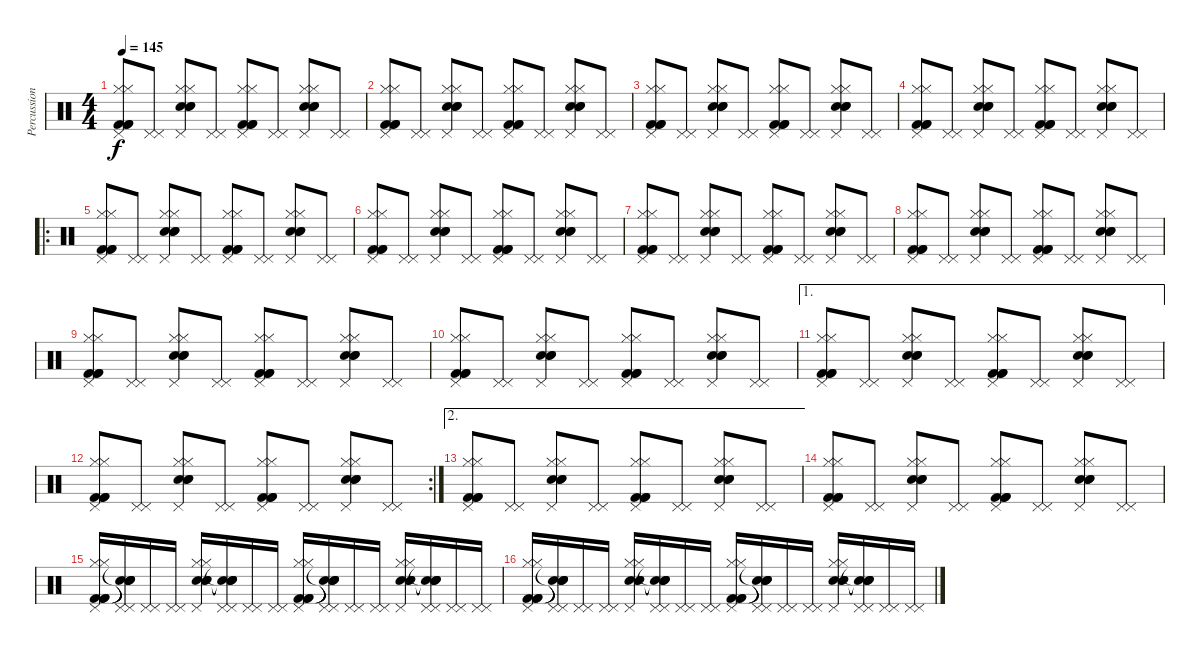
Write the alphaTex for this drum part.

\track ("Percussion" "Percussion") {instrument percussion}
\staff {score}
\articulation defaults
\ts (4 4)
\tempo 145
\clef neutral
\ks c
("Pedal Hi-Hat (hit)" "Hi-Hat (closed)" "Hi-Hat (closed)" "Kick (hit) 2" "Kick (hit) 2" "Kick (hit) 2").8{dy f} ("Pedal Hi-Hat (hit)" "Pedal Hi-Hat (hit)").8 ("Pedal Hi-Hat (hit)" "Hi-Hat (closed)" "Hi-Hat (closed)" "Snare (hit) 2" "Snare (hit) 2" "Snare (hit) 2").8 ("Pedal Hi-Hat (hit)" "Pedal Hi-Hat (hit)").8 ("Pedal Hi-Hat (hit)" "Hi-Hat (closed)" "Hi-Hat (closed)" "Kick (hit) 2" "Kick (hit) 2" "Kick (hit) 2").8 ("Pedal Hi-Hat (hit)" "Pedal Hi-Hat (hit)").8 ("Pedal Hi-Hat (hit)" "Hi-Hat (closed)" "Hi-Hat (closed)" "Snare (hit) 2" "Snare (hit) 2" "Snare (hit) 2").8 ("Pedal Hi-Hat (hit)" "Pedal Hi-Hat (hit)").8 |
("Pedal Hi-Hat (hit)" "Hi-Hat (closed)" "Hi-Hat (closed)" "Kick (hit) 2" "Kick (hit) 2" "Kick (hit) 2").8 ("Pedal Hi-Hat (hit)" "Pedal Hi-Hat (hit)").8 ("Pedal Hi-Hat (hit)" "Hi-Hat (closed)" "Hi-Hat (closed)" "Snare (hit) 2" "Snare (hit) 2" "Snare (hit) 2").8 ("Pedal Hi-Hat (hit)" "Pedal Hi-Hat (hit)").8 ("Pedal Hi-Hat (hit)" "Hi-Hat (closed)" "Hi-Hat (closed)" "Kick (hit) 2" "Kick (hit) 2" "Kick (hit) 2").8 ("Pedal Hi-Hat (hit)" "Pedal Hi-Hat (hit)").8 ("Pedal Hi-Hat (hit)" "Hi-Hat (closed)" "Hi-Hat (closed)" "Snare (hit) 2" "Snare (hit) 2" "Snare (hit) 2").8 ("Pedal Hi-Hat (hit)" "Pedal Hi-Hat (hit)").8 |
("Pedal Hi-Hat (hit)" "Hi-Hat (closed)" "Hi-Hat (closed)" "Kick (hit) 2" "Kick (hit) 2" "Kick (hit) 2").8 ("Pedal Hi-Hat (hit)" "Pedal Hi-Hat (hit)").8 ("Pedal Hi-Hat (hit)" "Hi-Hat (closed)" "Hi-Hat (closed)" "Snare (hit) 2" "Snare (hit) 2" "Snare (hit) 2").8 ("Pedal Hi-Hat (hit)" "Pedal Hi-Hat (hit)").8 ("Pedal Hi-Hat (hit)" "Hi-Hat (closed)" "Hi-Hat (closed)" "Kick (hit) 2" "Kick (hit) 2" "Kick (hit) 2").8 ("Pedal Hi-Hat (hit)" "Pedal Hi-Hat (hit)").8 ("Pedal Hi-Hat (hit)" "Hi-Hat (closed)" "Hi-Hat (closed)" "Snare (hit) 2" "Snare (hit) 2" "Snare (hit) 2").8 ("Pedal Hi-Hat (hit)" "Pedal Hi-Hat (hit)").8 |
("Pedal Hi-Hat (hit)" "Hi-Hat (closed)" "Hi-Hat (closed)" "Kick (hit) 2" "Kick (hit) 2" "Kick (hit) 2").8 ("Pedal Hi-Hat (hit)" "Pedal Hi-Hat (hit)").8 ("Pedal Hi-Hat (hit)" "Hi-Hat (closed)" "Hi-Hat (closed)" "Snare (hit) 2" "Snare (hit) 2" "Snare (hit) 2").8 ("Pedal Hi-Hat (hit)" "Pedal Hi-Hat (hit)").8 ("Pedal Hi-Hat (hit)" "Hi-Hat (closed)" "Hi-Hat (closed)" "Kick (hit) 2" "Kick (hit) 2" "Kick (hit) 2").8 ("Pedal Hi-Hat (hit)" "Pedal Hi-Hat (hit)").8 ("Pedal Hi-Hat (hit)" "Hi-Hat (closed)" "Hi-Hat (closed)" "Snare (hit) 2" "Snare (hit) 2" "Snare (hit) 2").8 ("Pedal Hi-Hat (hit)" "Pedal Hi-Hat (hit)").8 |
\ro
("Pedal Hi-Hat (hit)" "Hi-Hat (closed)" "Hi-Hat (closed)" "Kick (hit) 2" "Kick (hit) 2" "Kick (hit) 2").8 ("Pedal Hi-Hat (hit)" "Pedal Hi-Hat (hit)").8 ("Pedal Hi-Hat (hit)" "Hi-Hat (closed)" "Hi-Hat (closed)" "Snare (hit) 2" "Snare (hit) 2" "Snare (hit) 2").8 ("Pedal Hi-Hat (hit)" "Pedal Hi-Hat (hit)").8 ("Pedal Hi-Hat (hit)" "Hi-Hat (closed)" "Hi-Hat (closed)" "Kick (hit) 2" "Kick (hit) 2" "Kick (hit) 2").8 ("Pedal Hi-Hat (hit)" "Pedal Hi-Hat (hit)").8 ("Pedal Hi-Hat (hit)" "Hi-Hat (closed)" "Hi-Hat (closed)" "Snare (hit) 2" "Snare (hit) 2" "Snare (hit) 2").8 ("Pedal Hi-Hat (hit)" "Pedal Hi-Hat (hit)").8 |
("Pedal Hi-Hat (hit)" "Hi-Hat (closed)" "Hi-Hat (closed)" "Kick (hit) 2" "Kick (hit) 2" "Kick (hit) 2").8 ("Pedal Hi-Hat (hit)" "Pedal Hi-Hat (hit)").8 ("Pedal Hi-Hat (hit)" "Hi-Hat (closed)" "Hi-Hat (closed)" "Snare (hit) 2" "Snare (hit) 2" "Snare (hit) 2").8 ("Pedal Hi-Hat (hit)" "Pedal Hi-Hat (hit)").8 ("Pedal Hi-Hat (hit)" "Hi-Hat (closed)" "Hi-Hat (closed)" "Kick (hit) 2" "Kick (hit) 2" "Kick (hit) 2").8 ("Pedal Hi-Hat (hit)" "Pedal Hi-Hat (hit)").8 ("Pedal Hi-Hat (hit)" "Hi-Hat (closed)" "Hi-Hat (closed)" "Snare (hit) 2" "Snare (hit) 2" "Snare (hit) 2").8 ("Pedal Hi-Hat (hit)" "Pedal Hi-Hat (hit)").8 |
("Pedal Hi-Hat (hit)" "Hi-Hat (closed)" "Hi-Hat (closed)" "Kick (hit) 2" "Kick (hit) 2" "Kick (hit) 2").8 ("Pedal Hi-Hat (hit)" "Pedal Hi-Hat (hit)").8 ("Pedal Hi-Hat (hit)" "Hi-Hat (closed)" "Hi-Hat (closed)" "Snare (hit) 2" "Snare (hit) 2" "Snare (hit) 2").8 ("Pedal Hi-Hat (hit)" "Pedal Hi-Hat (hit)").8 ("Pedal Hi-Hat (hit)" "Hi-Hat (closed)" "Hi-Hat (closed)" "Kick (hit) 2" "Kick (hit) 2" "Kick (hit) 2").8 ("Pedal Hi-Hat (hit)" "Pedal Hi-Hat (hit)").8 ("Pedal Hi-Hat (hit)" "Hi-Hat (closed)" "Hi-Hat (closed)" "Snare (hit) 2" "Snare (hit) 2" "Snare (hit) 2").8 ("Pedal Hi-Hat (hit)" "Pedal Hi-Hat (hit)").8 |
("Pedal Hi-Hat (hit)" "Hi-Hat (closed)" "Hi-Hat (closed)" "Kick (hit) 2" "Kick (hit) 2" "Kick (hit) 2").8 ("Pedal Hi-Hat (hit)" "Pedal Hi-Hat (hit)").8 ("Pedal Hi-Hat (hit)" "Hi-Hat (closed)" "Hi-Hat (closed)" "Snare (hit) 2" "Snare (hit) 2" "Snare (hit) 2").8 ("Pedal Hi-Hat (hit)" "Pedal Hi-Hat (hit)").8 ("Pedal Hi-Hat (hit)" "Hi-Hat (closed)" "Hi-Hat (closed)" "Kick (hit) 2" "Kick (hit) 2" "Kick (hit) 2").8 ("Pedal Hi-Hat (hit)" "Pedal Hi-Hat (hit)").8 ("Pedal Hi-Hat (hit)" "Hi-Hat (closed)" "Hi-Hat (closed)" "Snare (hit) 2" "Snare (hit) 2" "Snare (hit) 2").8 ("Pedal Hi-Hat (hit)" "Pedal Hi-Hat (hit)").8 |
("Pedal Hi-Hat (hit)" "Hi-Hat (closed)" "Hi-Hat (closed)" "Kick (hit) 2" "Kick (hit) 2" "Kick (hit) 2").8 ("Pedal Hi-Hat (hit)" "Pedal Hi-Hat (hit)").8 ("Pedal Hi-Hat (hit)" "Hi-Hat (closed)" "Hi-Hat (closed)" "Snare (hit) 2" "Snare (hit) 2" "Snare (hit) 2").8 ("Pedal Hi-Hat (hit)" "Pedal Hi-Hat (hit)").8 ("Pedal Hi-Hat (hit)" "Hi-Hat (closed)" "Hi-Hat (closed)" "Kick (hit) 2" "Kick (hit) 2" "Kick (hit) 2").8 ("Pedal Hi-Hat (hit)" "Pedal Hi-Hat (hit)").8 ("Pedal Hi-Hat (hit)" "Hi-Hat (closed)" "Hi-Hat (closed)" "Snare (hit) 2" "Snare (hit) 2" "Snare (hit) 2").8 ("Pedal Hi-Hat (hit)" "Pedal Hi-Hat (hit)").8 |
("Pedal Hi-Hat (hit)" "Hi-Hat (closed)" "Hi-Hat (closed)" "Kick (hit) 2" "Kick (hit) 2" "Kick (hit) 2").8 ("Pedal Hi-Hat (hit)" "Pedal Hi-Hat (hit)").8 ("Pedal Hi-Hat (hit)" "Hi-Hat (closed)" "Hi-Hat (closed)" "Snare (hit) 2" "Snare (hit) 2" "Snare (hit) 2").8 ("Pedal Hi-Hat (hit)" "Pedal Hi-Hat (hit)").8 ("Pedal Hi-Hat (hit)" "Hi-Hat (closed)" "Hi-Hat (closed)" "Kick (hit) 2" "Kick (hit) 2" "Kick (hit) 2").8 ("Pedal Hi-Hat (hit)" "Pedal Hi-Hat (hit)").8 ("Pedal Hi-Hat (hit)" "Hi-Hat (closed)" "Hi-Hat (closed)" "Snare (hit) 2" "Snare (hit) 2" "Snare (hit) 2").8 ("Pedal Hi-Hat (hit)" "Pedal Hi-Hat (hit)").8 |
\ae 1
("Pedal Hi-Hat (hit)" "Hi-Hat (closed)" "Hi-Hat (closed)" "Kick (hit) 2" "Kick (hit) 2" "Kick (hit) 2").8 ("Pedal Hi-Hat (hit)" "Pedal Hi-Hat (hit)").8 ("Pedal Hi-Hat (hit)" "Hi-Hat (closed)" "Hi-Hat (closed)" "Snare (hit) 2" "Snare (hit) 2" "Snare (hit) 2").8 ("Pedal Hi-Hat (hit)" "Pedal Hi-Hat (hit)").8 ("Pedal Hi-Hat (hit)" "Hi-Hat (closed)" "Hi-Hat (closed)" "Kick (hit) 2" "Kick (hit) 2" "Kick (hit) 2").8 ("Pedal Hi-Hat (hit)" "Pedal Hi-Hat (hit)").8 ("Pedal Hi-Hat (hit)" "Hi-Hat (closed)" "Hi-Hat (closed)" "Snare (hit) 2" "Snare (hit) 2" "Snare (hit) 2").8 ("Pedal Hi-Hat (hit)" "Pedal Hi-Hat (hit)").8 |
\rc 2
("Pedal Hi-Hat (hit)" "Hi-Hat (closed)" "Hi-Hat (closed)" "Kick (hit) 2" "Kick (hit) 2" "Kick (hit) 2").8 ("Pedal Hi-Hat (hit)" "Pedal Hi-Hat (hit)").8 ("Pedal Hi-Hat (hit)" "Hi-Hat (closed)" "Hi-Hat (closed)" "Snare (hit) 2" "Snare (hit) 2" "Snare (hit) 2").8 ("Pedal Hi-Hat (hit)" "Pedal Hi-Hat (hit)").8 ("Pedal Hi-Hat (hit)" "Hi-Hat (closed)" "Hi-Hat (closed)" "Kick (hit) 2" "Kick (hit) 2" "Kick (hit) 2").8 ("Pedal Hi-Hat (hit)" "Pedal Hi-Hat (hit)").8 ("Pedal Hi-Hat (hit)" "Hi-Hat (closed)" "Hi-Hat (closed)" "Snare (hit) 2" "Snare (hit) 2" "Snare (hit) 2").8 ("Pedal Hi-Hat (hit)" "Pedal Hi-Hat (hit)").8 |
\ae 2
("Pedal Hi-Hat (hit)" "Hi-Hat (closed)" "Hi-Hat (closed)" "Kick (hit) 2" "Kick (hit) 2" "Kick (hit) 2").8 ("Pedal Hi-Hat (hit)" "Pedal Hi-Hat (hit)").8 ("Pedal Hi-Hat (hit)" "Hi-Hat (closed)" "Hi-Hat (closed)" "Snare (hit) 2" "Snare (hit) 2" "Snare (hit) 2").8 ("Pedal Hi-Hat (hit)" "Pedal Hi-Hat (hit)").8 ("Pedal Hi-Hat (hit)" "Hi-Hat (closed)" "Hi-Hat (closed)" "Kick (hit) 2" "Kick (hit) 2" "Kick (hit) 2").8 ("Pedal Hi-Hat (hit)" "Pedal Hi-Hat (hit)").8 ("Pedal Hi-Hat (hit)" "Hi-Hat (closed)" "Hi-Hat (closed)" "Snare (hit) 2" "Snare (hit) 2" "Snare (hit) 2").8 ("Pedal Hi-Hat (hit)" "Pedal Hi-Hat (hit)").8 |
("Pedal Hi-Hat (hit)" "Hi-Hat (closed)" "Hi-Hat (closed)" "Kick (hit) 2" "Kick (hit) 2" "Kick (hit) 2").8 ("Pedal Hi-Hat (hit)" "Pedal Hi-Hat (hit)").8 ("Pedal Hi-Hat (hit)" "Hi-Hat (closed)" "Hi-Hat (closed)" "Snare (hit) 2" "Snare (hit) 2" "Snare (hit) 2").8 ("Pedal Hi-Hat (hit)" "Pedal Hi-Hat (hit)").8 ("Pedal Hi-Hat (hit)" "Hi-Hat (closed)" "Hi-Hat (closed)" "Kick (hit) 2" "Kick (hit) 2" "Kick (hit) 2").8 ("Pedal Hi-Hat (hit)" "Pedal Hi-Hat (hit)").8 ("Pedal Hi-Hat (hit)" "Hi-Hat (closed)" "Hi-Hat (closed)" "Snare (hit) 2" "Snare (hit) 2" "Snare (hit) 2").8 ("Pedal Hi-Hat (hit)" "Pedal Hi-Hat (hit)").8 |
("Pedal Hi-Hat (hit)" "Hi-Hat (closed)" "Hi-Hat (closed)" "Kick (hit) 2" "Kick (hit) 2" "Kick (hit) 2").16 ("Pedal Hi-Hat (hit)" "Pedal Hi-Hat (hit)" "Snare (hit)"{t} "Snare (hit)"{t} "Snare (hit)"{t} "Snare (hit)"{t}).16 ("Pedal Hi-Hat (hit)" "Pedal Hi-Hat (hit)").16 ("Pedal Hi-Hat (hit)" "Pedal Hi-Hat (hit)").16 ("Pedal Hi-Hat (hit)" "Hi-Hat (closed)" "Hi-Hat (closed)" "Snare (hit) 2" "Snare (hit) 2" "Snare (hit) 2").16 ("Pedal Hi-Hat (hit)" "Pedal Hi-Hat (hit)" "Snare (hit)"{t} "Snare (hit)"{t} "Snare (hit)"{t} "Snare (hit)"{t}).16 ("Pedal Hi-Hat (hit)" "Pedal Hi-Hat (hit)").16 ("Pedal Hi-Hat (hit)" "Pedal Hi-Hat (hit)").16 ("Pedal Hi-Hat (hit)" "Hi-Hat (closed)" "Hi-Hat (closed)" "Kick (hit) 2" "Kick (hit) 2" "Kick (hit) 2").16 ("Pedal Hi-Hat (hit)" "Pedal Hi-Hat (hit)" "Snare (hit)"{t} "Snare (hit)"{t} "Snare (hit)"{t} "Snare (hit)"{t}).16 ("Pedal Hi-Hat (hit)" "Pedal Hi-Hat (hit)").16 ("Pedal Hi-Hat (hit)" "Pedal Hi-Hat (hit)").16 ("Pedal Hi-Hat (hit)" "Hi-Hat (closed)" "Hi-Hat (closed)" "Snare (hit) 2" "Snare (hit) 2" "Snare (hit) 2").16 ("Pedal Hi-Hat (hit)" "Pedal Hi-Hat (hit)" "Snare (hit)"{t} "Snare (hit)"{t} "Snare (hit)"{t} "Snare (hit)"{t}).16 ("Pedal Hi-Hat (hit)" "Pedal Hi-Hat (hit)").16 ("Pedal Hi-Hat (hit)" "Pedal Hi-Hat (hit)").16 |
("Pedal Hi-Hat (hit)" "Hi-Hat (closed)" "Hi-Hat (closed)" "Kick (hit) 2" "Kick (hit) 2" "Kick (hit) 2").16 ("Pedal Hi-Hat (hit)" "Pedal Hi-Hat (hit)" "Snare (hit)"{t} "Snare (hit)"{t} "Snare (hit)"{t} "Snare (hit)"{t}).16 ("Pedal Hi-Hat (hit)" "Pedal Hi-Hat (hit)").16 ("Pedal Hi-Hat (hit)" "Pedal Hi-Hat (hit)").16 ("Pedal Hi-Hat (hit)" "Hi-Hat (closed)" "Hi-Hat (closed)" "Snare (hit) 2" "Snare (hit) 2" "Snare (hit) 2").16 ("Pedal Hi-Hat (hit)" "Pedal Hi-Hat (hit)" "Snare (hit)"{t} "Snare (hit)"{t} "Snare (hit)"{t} "Snare (hit)"{t}).16 ("Pedal Hi-Hat (hit)" "Pedal Hi-Hat (hit)").16 ("Pedal Hi-Hat (hit)" "Pedal Hi-Hat (hit)").16 ("Pedal Hi-Hat (hit)" "Hi-Hat (closed)" "Hi-Hat (closed)" "Kick (hit) 2" "Kick (hit) 2" "Kick (hit) 2").16 ("Pedal Hi-Hat (hit)" "Pedal Hi-Hat (hit)" "Snare (hit)"{t} "Snare (hit)"{t} "Snare (hit)"{t} "Snare (hit)"{t}).16 ("Pedal Hi-Hat (hit)" "Pedal Hi-Hat (hit)").16 ("Pedal Hi-Hat (hit)" "Pedal Hi-Hat (hit)").16 ("Pedal Hi-Hat (hit)" "Hi-Hat (closed)" "Hi-Hat (closed)" "Snare (hit) 2" "Snare (hit) 2" "Snare (hit) 2").16 ("Pedal Hi-Hat (hit)" "Pedal Hi-Hat (hit)" "Snare (hit)"{t} "Snare (hit)"{t} "Snare (hit)"{t} "Snare (hit)"{t}).16 ("Pedal Hi-Hat (hit)" "Pedal Hi-Hat (hit)").16 ("Pedal Hi-Hat (hit)" "Pedal Hi-Hat (hit)").16
